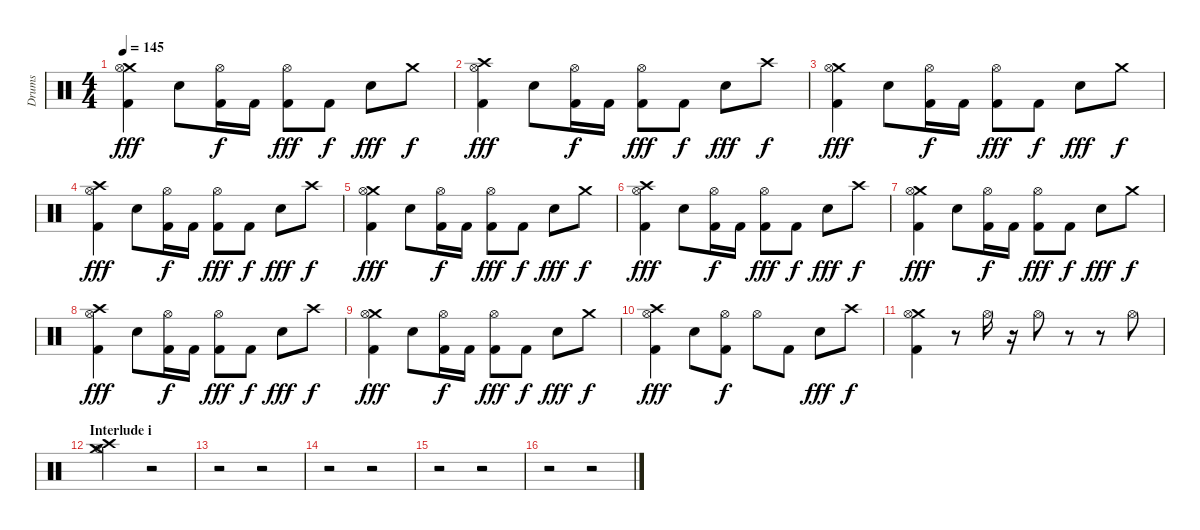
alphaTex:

\track ("Drums" "Drums") {instrument percussion}
\staff {score}
\articulation defaults
\ts (4 4)
\tempo 145
\clef neutral
\ks c
("Crash medium (hit)" "Hi-Hat (open)" "Kick (hit) 2").4{dy fff} "Snare (hit) 2".8 ("Hi-Hat (open)" "Kick (hit) 2").16{dy f} "Kick (hit) 2".16 ("Hi-Hat (open)" "Kick (hit) 2").8{dy fff} "Kick (hit) 2".8{dy f} "Snare (hit) 2".8{dy fff} "Crash medium (hit)".8{dy f} |
("Crash high (hit)" "Hi-Hat (open)" "Kick (hit) 2").4{dy fff} "Snare (hit) 2".8 ("Hi-Hat (open)" "Kick (hit) 2").16{dy f} "Kick (hit) 2".16 ("Hi-Hat (open)" "Kick (hit) 2").8{dy fff} "Kick (hit) 2".8{dy f} "Snare (hit) 2".8{dy fff} "Crash high (hit)".8{dy f} |
("Crash medium (hit)" "Hi-Hat (open)" "Kick (hit) 2").4{dy fff} "Snare (hit) 2".8 ("Hi-Hat (open)" "Kick (hit) 2").16{dy f} "Kick (hit) 2".16 ("Hi-Hat (open)" "Kick (hit) 2").8{dy fff} "Kick (hit) 2".8{dy f} "Snare (hit) 2".8{dy fff} "Crash medium (hit)".8{dy f} |
("Crash high (hit)" "Hi-Hat (open)" "Kick (hit) 2").4{dy fff} "Snare (hit) 2".8 ("Hi-Hat (open)" "Kick (hit) 2").16{dy f} "Kick (hit) 2".16 ("Hi-Hat (open)" "Kick (hit) 2").8{dy fff} "Kick (hit) 2".8{dy f} "Snare (hit) 2".8{dy fff} "Crash high (hit)".8{dy f} |
("Crash medium (hit)" "Hi-Hat (open)" "Kick (hit) 2").4{dy fff} "Snare (hit) 2".8 ("Hi-Hat (open)" "Kick (hit) 2").16{dy f} "Kick (hit) 2".16 ("Hi-Hat (open)" "Kick (hit) 2").8{dy fff} "Kick (hit) 2".8{dy f} "Snare (hit) 2".8{dy fff} "Crash medium (hit)".8{dy f} |
("Crash high (hit)" "Hi-Hat (open)" "Kick (hit) 2").4{dy fff} "Snare (hit) 2".8 ("Hi-Hat (open)" "Kick (hit) 2").16{dy f} "Kick (hit) 2".16 ("Hi-Hat (open)" "Kick (hit) 2").8{dy fff} "Kick (hit) 2".8{dy f} "Snare (hit) 2".8{dy fff} "Crash high (hit)".8{dy f} |
("Crash medium (hit)" "Hi-Hat (open)" "Kick (hit) 2").4{dy fff} "Snare (hit) 2".8 ("Hi-Hat (open)" "Kick (hit) 2").16{dy f} "Kick (hit) 2".16 ("Hi-Hat (open)" "Kick (hit) 2").8{dy fff} "Kick (hit) 2".8{dy f} "Snare (hit) 2".8{dy fff} "Crash medium (hit)".8{dy f} |
("Crash high (hit)" "Hi-Hat (open)" "Kick (hit) 2").4{dy fff} "Snare (hit) 2".8 ("Hi-Hat (open)" "Kick (hit) 2").16{dy f} "Kick (hit) 2".16 ("Hi-Hat (open)" "Kick (hit) 2").8{dy fff} "Kick (hit) 2".8{dy f} "Snare (hit) 2".8{dy fff} "Crash high (hit)".8{dy f} |
("Crash medium (hit)" "Hi-Hat (open)" "Kick (hit) 2").4{dy fff} "Snare (hit) 2".8 ("Hi-Hat (open)" "Kick (hit) 2").16{dy f} "Kick (hit) 2".16 ("Hi-Hat (open)" "Kick (hit) 2").8{dy fff} "Kick (hit) 2".8{dy f} "Snare (hit) 2".8{dy fff} "Crash medium (hit)".8{dy f} |
("Crash high (hit)" "Hi-Hat (open)" "Kick (hit) 2").4{dy fff} "Snare (hit) 2".8 ("Hi-Hat (open)" "Kick (hit) 2").8{dy f} "Hi-Hat (open)".8 "Kick (hit) 2".8 "Snare (hit) 2".8{dy fff} "Crash high (hit)".8{dy f} |
("Crash medium (hit)" "Hi-Hat (open)" "Kick (hit) 2").4 r.8 "Hi-Hat (open)".16 r.16 "Hi-Hat (open)".8 r.8 r.8 "Hi-Hat (open)".8 |
\section ("" "Interlude i")
("Crash high (hit)" "Crash medium (hit)" "Hi-Hat (open)").2 r.2 |
r.2 r.2 |
r.2 r.2 |
r.2 r.2 |
r.2 r.2
